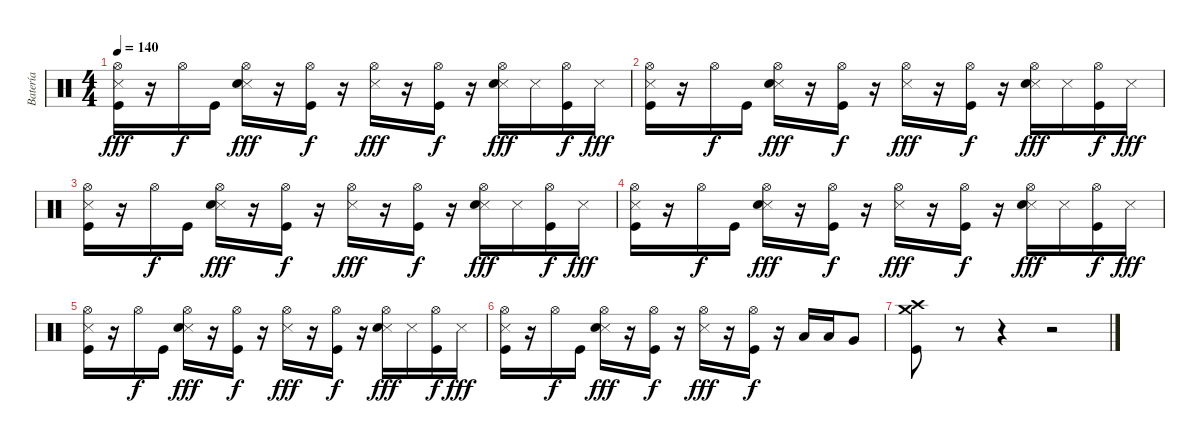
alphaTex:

\track ("Batería" "Batería") {instrument percussion}
\staff {score}
\articulation defaults
\ts (4 4)
\tempo 140
\clef neutral
\ks c
("Metronome (hit)" "Hi-Hat (open)" "Kick (hit)").16{dy fff} r.16 "Hi-Hat (open)".16{dy f} "Kick (hit)".16 ("Metronome (hit)" "Hi-Hat (open)" "Snare (hit) 2").16{dy fff} r.16 ("Hi-Hat (open)" "Kick (hit)").16{dy f} r.16 ("Metronome (hit)" "Hi-Hat (open)").16{dy fff} r.16 ("Hi-Hat (open)" "Kick (hit)").16{dy f} r.16 ("Metronome (hit)" "Hi-Hat (open)" "Snare (hit) 2").16{dy fff} "Metronome (hit)".16 ("Hi-Hat (open)" "Kick (hit)").16{dy f} "Metronome (hit)".16{dy fff} |
("Metronome (hit)" "Hi-Hat (open)" "Kick (hit)").16 r.16 "Hi-Hat (open)".16{dy f} "Kick (hit)".16 ("Metronome (hit)" "Hi-Hat (open)" "Snare (hit) 2").16{dy fff} r.16 ("Hi-Hat (open)" "Kick (hit)").16{dy f} r.16 ("Metronome (hit)" "Hi-Hat (open)").16{dy fff} r.16 ("Hi-Hat (open)" "Kick (hit)").16{dy f} r.16 ("Metronome (hit)" "Hi-Hat (open)" "Snare (hit) 2").16{dy fff} "Metronome (hit)".16 ("Hi-Hat (open)" "Kick (hit)").16{dy f} "Metronome (hit)".16{dy fff} |
("Metronome (hit)" "Hi-Hat (open)" "Kick (hit)").16 r.16 "Hi-Hat (open)".16{dy f} "Kick (hit)".16 ("Metronome (hit)" "Hi-Hat (open)" "Snare (hit) 2").16{dy fff} r.16 ("Hi-Hat (open)" "Kick (hit)").16{dy f} r.16 ("Metronome (hit)" "Hi-Hat (open)").16{dy fff} r.16 ("Hi-Hat (open)" "Kick (hit)").16{dy f} r.16 ("Metronome (hit)" "Hi-Hat (open)" "Snare (hit) 2").16{dy fff} "Metronome (hit)".16 ("Hi-Hat (open)" "Kick (hit)").16{dy f} "Metronome (hit)".16{dy fff} |
("Metronome (hit)" "Hi-Hat (open)" "Kick (hit)").16 r.16 "Hi-Hat (open)".16{dy f} "Kick (hit)".16 ("Metronome (hit)" "Hi-Hat (open)" "Snare (hit) 2").16{dy fff} r.16 ("Hi-Hat (open)" "Kick (hit)").16{dy f} r.16 ("Metronome (hit)" "Hi-Hat (open)").16{dy fff} r.16 ("Hi-Hat (open)" "Kick (hit)").16{dy f} r.16 ("Metronome (hit)" "Hi-Hat (open)" "Snare (hit) 2").16{dy fff} "Metronome (hit)".16 ("Hi-Hat (open)" "Kick (hit)").16{dy f} "Metronome (hit)".16{dy fff} |
("Metronome (hit)" "Hi-Hat (open)" "Kick (hit)").16 r.16 "Hi-Hat (open)".16{dy f} "Kick (hit)".16 ("Metronome (hit)" "Hi-Hat (open)" "Snare (hit) 2").16{dy fff} r.16 ("Hi-Hat (open)" "Kick (hit)").16{dy f} r.16 ("Metronome (hit)" "Hi-Hat (open)").16{dy fff} r.16 ("Hi-Hat (open)" "Kick (hit)").16{dy f} r.16 ("Metronome (hit)" "Hi-Hat (open)" "Snare (hit) 2").16{dy fff} "Metronome (hit)".16 ("Hi-Hat (open)" "Kick (hit)").16{dy f} "Metronome (hit)".16{dy fff} |
("Metronome (hit)" "Hi-Hat (open)" "Kick (hit)").16 r.16 "Hi-Hat (open)".16{dy f} "Kick (hit)".16 ("Metronome (hit)" "Hi-Hat (open)" "Snare (hit) 2").16{dy fff} r.16 ("Hi-Hat (open)" "Kick (hit)").16{dy f} r.16 ("Metronome (hit)" "Hi-Hat (open)").16{dy fff} r.16 ("Hi-Hat (open)" "Kick (hit)").16{dy f} r.16 "Low Tom (hit)".16 "Low Tom (hit)".16 "Very Low Tom (hit)".8 |
("Crash medium (hit)" "Crash high (hit)" "Kick (hit)").8 r.8{volume 0} r.4 r.2
